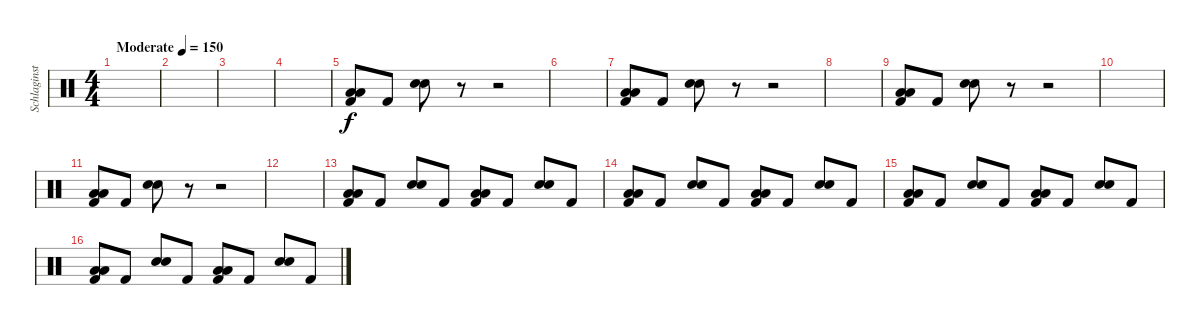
\track ("Schlaginstrumente - Auswahl" "Schlaginst") {instrument percussion}
\staff {score}
\articulation defaults
\ts (4 4)
\tempo (150 "Moderate")
\clef neutral
\ks c
|
|
|
|
("Low Tom (hit)" "Low Tom (hit)" "Kick (hit) 2").8 "Kick (hit) 2".8 ("Snare (hit) 2" "Snare (hit) 2").8{bd 120} r.8 r.2 |
|
("Low Tom (hit)" "Low Tom (hit)" "Kick (hit) 2").8 "Kick (hit) 2".8 ("Snare (hit) 2" "Snare (hit) 2").8{bd 120} r.8 r.2 |
|
("Low Tom (hit)" "Low Tom (hit)" "Kick (hit) 2").8 "Kick (hit) 2".8 ("Snare (hit) 2" "Snare (hit) 2").8{bd 120} r.8 r.2 |
|
("Low Tom (hit)" "Low Tom (hit)" "Kick (hit) 2").8 "Kick (hit) 2".8 ("Snare (hit) 2" "Snare (hit) 2").8{bd 120} r.8 r.2 |
|
("Low Tom (hit)" "Low Tom (hit)" "Kick (hit) 2").8 "Kick (hit) 2".8 ("Snare (hit) 2" "Snare (hit) 2").8{bd 120} "Kick (hit) 2".8 ("Low Tom (hit)" "Low Tom (hit)" "Kick (hit) 2").8 "Kick (hit) 2".8 ("Snare (hit) 2" "Snare (hit) 2").8{bd 120} "Kick (hit) 2".8 |
("Low Tom (hit)" "Low Tom (hit)" "Kick (hit) 2").8 "Kick (hit) 2".8 ("Snare (hit) 2" "Snare (hit) 2").8{bd 120} "Kick (hit) 2".8 ("Low Tom (hit)" "Low Tom (hit)" "Kick (hit) 2").8 "Kick (hit) 2".8 ("Snare (hit) 2" "Snare (hit) 2").8{bd 120} "Kick (hit) 2".8 |
("Low Tom (hit)" "Low Tom (hit)" "Kick (hit) 2").8 "Kick (hit) 2".8 ("Snare (hit) 2" "Snare (hit) 2").8{bd 120} "Kick (hit) 2".8 ("Low Tom (hit)" "Low Tom (hit)" "Kick (hit) 2").8 "Kick (hit) 2".8 ("Snare (hit) 2" "Snare (hit) 2").8{bd 120} "Kick (hit) 2".8 |
("Low Tom (hit)" "Low Tom (hit)" "Kick (hit) 2").8 "Kick (hit) 2".8 ("Snare (hit) 2" "Snare (hit) 2").8{bd 120} "Kick (hit) 2".8 ("Low Tom (hit)" "Low Tom (hit)" "Kick (hit) 2").8 "Kick (hit) 2".8 ("Snare (hit) 2" "Snare (hit) 2").8{bd 120} "Kick (hit) 2".8
